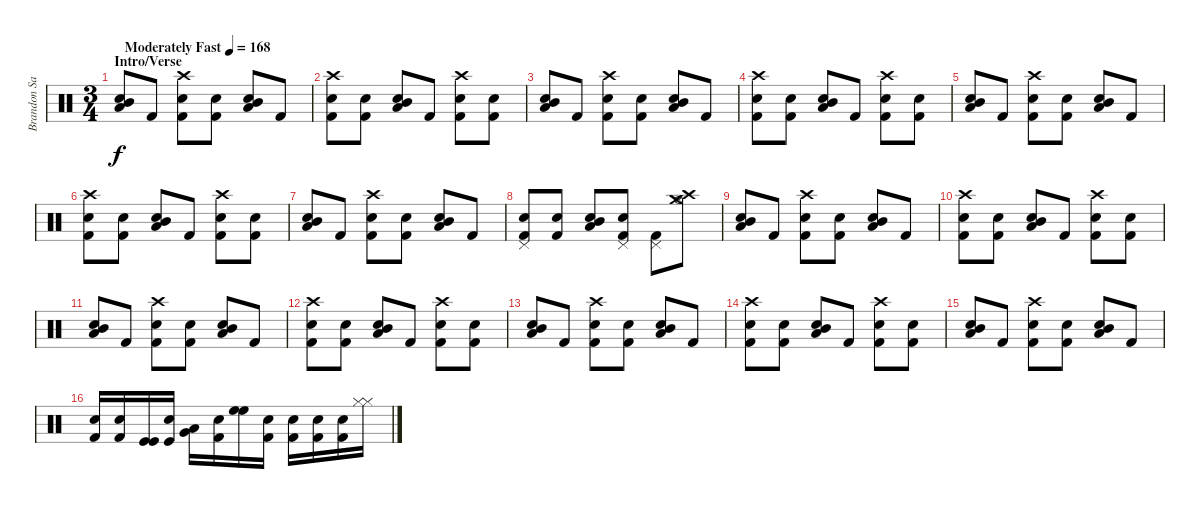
\track ("Brandon Saller" "Brandon Sa") {instrument percussion}
\staff {score}
\articulation defaults
\ts (3 4)
\section ("" "Intro/Verse")
\tempo (168 "Moderately Fast")
\clef neutral
\ks c
("Snare (hit) 2" "Low Tom (hit)" "Mid Tom (hit)").8{dy f} "Kick (hit) 2".8 ("Crash high (hit)" "Snare (hit)" "Kick (hit) 2").8 ("Snare (hit)" "Kick (hit) 2").8 ("Snare (hit) 2" "Low Tom (hit)" "Mid Tom (hit)").8 "Kick (hit) 2".8 |
("Crash high (hit)" "Snare (hit)" "Kick (hit) 2").8 ("Snare (hit)" "Kick (hit) 2").8 ("Snare (hit) 2" "Low Tom (hit)" "Mid Tom (hit)").8 "Kick (hit) 2".8 ("Crash high (hit)" "Snare (hit)" "Kick (hit) 2").8 ("Snare (hit)" "Kick (hit) 2").8 |
("Snare (hit) 2" "Low Tom (hit)" "Mid Tom (hit)").8 "Kick (hit) 2".8 ("Crash high (hit)" "Snare (hit)" "Kick (hit) 2").8 ("Snare (hit)" "Kick (hit) 2").8 ("Snare (hit) 2" "Low Tom (hit)" "Mid Tom (hit)").8 "Kick (hit) 2".8 |
("Crash high (hit)" "Snare (hit)" "Kick (hit) 2").8 ("Snare (hit)" "Kick (hit) 2").8 ("Snare (hit) 2" "Low Tom (hit)" "Mid Tom (hit)").8 "Kick (hit) 2".8 ("Crash high (hit)" "Snare (hit)" "Kick (hit) 2").8 ("Snare (hit)" "Kick (hit) 2").8 |
("Snare (hit) 2" "Low Tom (hit)" "Mid Tom (hit)").8 "Kick (hit) 2".8 ("Crash high (hit)" "Snare (hit)" "Kick (hit) 2").8 ("Snare (hit)" "Kick (hit) 2").8 ("Snare (hit) 2" "Low Tom (hit)" "Mid Tom (hit)").8 "Kick (hit) 2".8 |
("Crash high (hit)" "Snare (hit)" "Kick (hit) 2").8 ("Snare (hit)" "Kick (hit) 2").8 ("Snare (hit) 2" "Low Tom (hit)" "Mid Tom (hit)").8 "Kick (hit) 2".8 ("Crash high (hit)" "Snare (hit)" "Kick (hit) 2").8 ("Snare (hit)" "Kick (hit) 2").8 |
("Snare (hit) 2" "Low Tom (hit)" "Mid Tom (hit)").8 "Kick (hit) 2".8 ("Crash high (hit)" "Snare (hit)" "Kick (hit) 2").8 ("Snare (hit)" "Kick (hit) 2").8 ("Snare (hit) 2" "Low Tom (hit)" "Mid Tom (hit)").8 "Kick (hit) 2".8 |
("Pedal Hi-Hat (hit)" "Snare (hit)" "Kick (hit) 2").8 ("Snare (hit)" "Kick (hit) 2").8 ("Snare (hit) 2" "Low Tom (hit)" "Mid Tom (hit)").8 ("Pedal Hi-Hat (hit)" "Snare (hit)" "Kick (hit) 2").8 ("Pedal Hi-Hat (hit)" "Kick (hit) 2").8 ("Crash medium (hit)" "Crash high (hit)" "Hi-Hat (open)").8 |
("Snare (hit) 2" "Low Tom (hit)" "Mid Tom (hit)").8 "Kick (hit) 2".8 ("Crash high (hit)" "Snare (hit)" "Kick (hit) 2").8 ("Snare (hit)" "Kick (hit) 2").8 ("Snare (hit) 2" "Low Tom (hit)" "Mid Tom (hit)").8 "Kick (hit) 2".8 |
("Crash high (hit)" "Snare (hit)" "Kick (hit) 2").8 ("Snare (hit)" "Kick (hit) 2").8 ("Snare (hit) 2" "Low Tom (hit)" "Mid Tom (hit)").8 "Kick (hit) 2".8 ("Crash high (hit)" "Snare (hit)" "Kick (hit) 2").8 ("Snare (hit)" "Kick (hit) 2").8 |
("Snare (hit) 2" "Low Tom (hit)" "Mid Tom (hit)").8 "Kick (hit) 2".8 ("Crash high (hit)" "Snare (hit)" "Kick (hit) 2").8 ("Snare (hit)" "Kick (hit) 2").8 ("Snare (hit) 2" "Low Tom (hit)" "Mid Tom (hit)").8 "Kick (hit) 2".8 |
("Crash high (hit)" "Snare (hit)" "Kick (hit) 2").8 ("Snare (hit)" "Kick (hit) 2").8 ("Snare (hit) 2" "Low Tom (hit)" "Mid Tom (hit)").8 "Kick (hit) 2".8 ("Crash high (hit)" "Snare (hit)" "Kick (hit) 2").8 ("Snare (hit)" "Kick (hit) 2").8 |
("Snare (hit) 2" "Low Tom (hit)" "Mid Tom (hit)").8 "Kick (hit) 2".8 ("Crash high (hit)" "Snare (hit)" "Kick (hit) 2").8 ("Snare (hit)" "Kick (hit) 2").8 ("Snare (hit) 2" "Low Tom (hit)" "Mid Tom (hit)").8 "Kick (hit) 2".8 |
("Crash high (hit)" "Snare (hit)" "Kick (hit) 2").8 ("Snare (hit)" "Kick (hit) 2").8 ("Snare (hit) 2" "Low Tom (hit)" "Mid Tom (hit)").8 "Kick (hit) 2".8 ("Crash high (hit)" "Snare (hit)" "Kick (hit) 2").8 ("Snare (hit)" "Kick (hit) 2").8 |
("Snare (hit) 2" "Low Tom (hit)" "Mid Tom (hit)").8 "Kick (hit) 2".8 ("Crash high (hit)" "Snare (hit)" "Kick (hit) 2").8 ("Snare (hit)" "Kick (hit) 2").8 ("Snare (hit) 2" "Low Tom (hit)" "Mid Tom (hit)").8 "Kick (hit) 2".8 |
("Electric Snare (hit)" "Kick (hit) 2").16 ("Snare (hit)" "Kick (hit) 2").16 ("Kick (hit)" "Kick (hit)").16 ("Snare (hit) 2" "Kick (hit)").16 ("Low Tom (hit)" "Very Low Tom (hit)").16 ("Snare (hit)" "Kick (hit) 2").16 ("High Floor Tom (hit)" "High Floor Tom (hit)").16 ("Snare (hit) 2" "Kick (hit) 2").16 ("Snare (hit) 2" "Kick (hit) 2").16 ("Snare (hit) 2" "Kick (hit) 2").16 ("Snare (hit) 2" "Kick (hit) 2").16 ("Hi-Hat (closed)" "Hi-Hat (closed)").16
